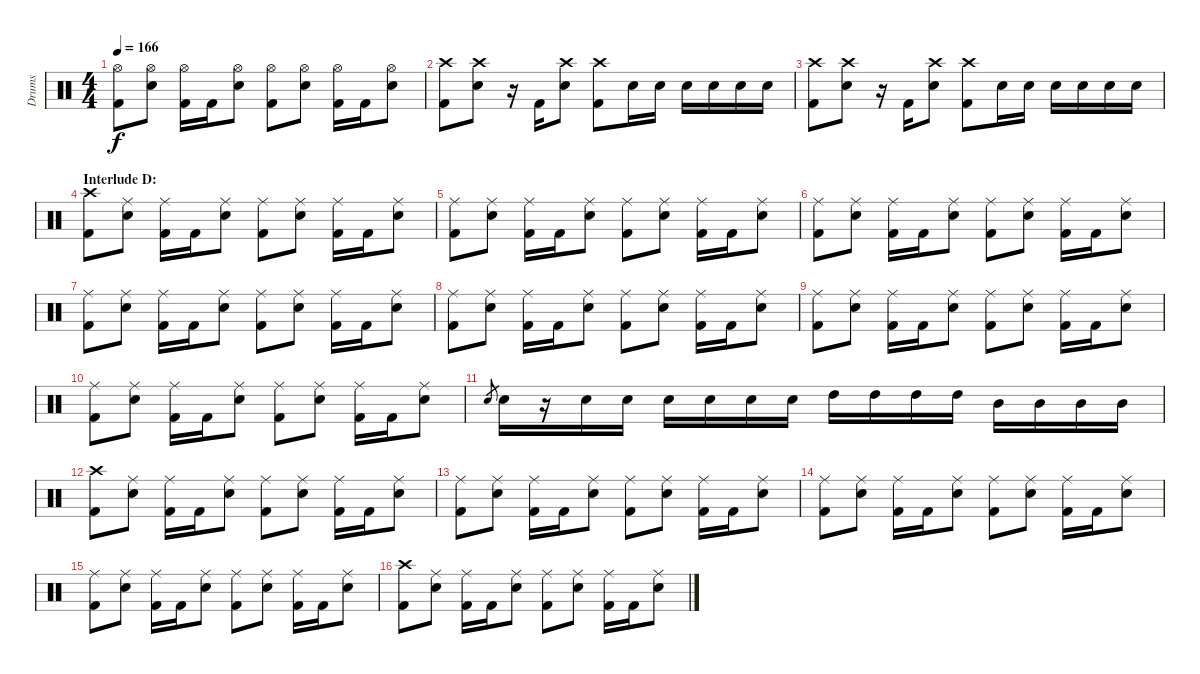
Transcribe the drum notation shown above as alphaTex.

\track ("Drums" "Drums") {instrument percussion}
\staff {score}
\articulation defaults
\ts (4 4)
\tempo 166
\clef neutral
\ks c
("Hi-Hat (open)" "Kick (hit) 2").8{dy f} ("Hi-Hat (open)" "Electric Snare (hit)").8 ("Hi-Hat (open)" "Kick (hit) 2").16 "Kick (hit) 2".16 ("Hi-Hat (open)" "Electric Snare (hit)").8 ("Hi-Hat (open)" "Kick (hit) 2").8 ("Hi-Hat (open)" "Electric Snare (hit)").8 ("Hi-Hat (open)" "Kick (hit) 2").16 "Kick (hit) 2".16 ("Hi-Hat (open)" "Electric Snare (hit)").8 |
("Crash high (hit)" "Kick (hit) 2").8 ("Crash high (hit)" "Electric Snare (hit)").8 r.16 "Kick (hit) 2".16 ("Crash high (hit)" "Electric Snare (hit)").8 ("Crash high (hit)" "Kick (hit) 2").8 "Electric Snare (hit)".16 "Electric Snare (hit)".16 "Electric Snare (hit)".16 "Electric Snare (hit)".16 "Electric Snare (hit)".16 "Electric Snare (hit)".16 |
("Crash high (hit)" "Kick (hit) 2").8 ("Crash high (hit)" "Electric Snare (hit)").8 r.16 "Kick (hit) 2".16 ("Crash high (hit)" "Electric Snare (hit)").8 ("Crash high (hit)" "Kick (hit) 2").8 "Electric Snare (hit)".16 "Electric Snare (hit)".16 "Electric Snare (hit)".16 "Electric Snare (hit)".16 "Electric Snare (hit)".16 "Electric Snare (hit)".16 |
\section ("" "Interlude D:")
("Crash high (hit)" "Kick (hit) 2").8 ("Ride (middle)" "Electric Snare (hit)").8 ("Ride (middle)" "Kick (hit) 2").16 "Kick (hit) 2".16 ("Ride (middle)" "Electric Snare (hit)").8 ("Ride (middle)" "Kick (hit) 2").8 ("Ride (middle)" "Electric Snare (hit)").8 ("Ride (middle)" "Kick (hit) 2").16 "Kick (hit) 2".16 ("Ride (middle)" "Electric Snare (hit)").8 |
("Ride (middle)" "Kick (hit) 2").8 ("Ride (middle)" "Electric Snare (hit)").8 ("Ride (middle)" "Kick (hit) 2").16 "Kick (hit) 2".16 ("Ride (middle)" "Electric Snare (hit)").8 ("Ride (middle)" "Kick (hit) 2").8 ("Ride (middle)" "Electric Snare (hit)").8 ("Ride (middle)" "Kick (hit) 2").16 "Kick (hit) 2".16 ("Ride (middle)" "Electric Snare (hit)").8 |
("Ride (middle)" "Kick (hit) 2").8 ("Ride (middle)" "Electric Snare (hit)").8 ("Ride (middle)" "Kick (hit) 2").16 "Kick (hit) 2".16 ("Ride (middle)" "Electric Snare (hit)").8 ("Ride (middle)" "Kick (hit) 2").8 ("Ride (middle)" "Electric Snare (hit)").8 ("Ride (middle)" "Kick (hit) 2").16 "Kick (hit) 2".16 ("Ride (middle)" "Electric Snare (hit)").8 |
("Ride (middle)" "Kick (hit) 2").8 ("Ride (middle)" "Electric Snare (hit)").8 ("Ride (middle)" "Kick (hit) 2").16 "Kick (hit) 2".16 ("Ride (middle)" "Electric Snare (hit)").8 ("Ride (middle)" "Kick (hit) 2").8 ("Ride (middle)" "Electric Snare (hit)").8 ("Ride (middle)" "Kick (hit) 2").16 "Kick (hit) 2".16 ("Ride (middle)" "Electric Snare (hit)").8 |
("Ride (middle)" "Kick (hit) 2").8 ("Ride (middle)" "Electric Snare (hit)").8 ("Ride (middle)" "Kick (hit) 2").16 "Kick (hit) 2".16 ("Ride (middle)" "Electric Snare (hit)").8 ("Ride (middle)" "Kick (hit) 2").8 ("Ride (middle)" "Electric Snare (hit)").8 ("Ride (middle)" "Kick (hit) 2").16 "Kick (hit) 2".16 ("Ride (middle)" "Electric Snare (hit)").8 |
("Ride (middle)" "Kick (hit) 2").8 ("Ride (middle)" "Electric Snare (hit)").8 ("Ride (middle)" "Kick (hit) 2").16 "Kick (hit) 2".16 ("Ride (middle)" "Electric Snare (hit)").8 ("Ride (middle)" "Kick (hit) 2").8 ("Ride (middle)" "Electric Snare (hit)").8 ("Ride (middle)" "Kick (hit) 2").16 "Kick (hit) 2".16 ("Ride (middle)" "Electric Snare (hit)").8 |
("Ride (middle)" "Kick (hit) 2").8 ("Ride (middle)" "Electric Snare (hit)").8 ("Ride (middle)" "Kick (hit) 2").16 "Kick (hit) 2".16 ("Ride (middle)" "Electric Snare (hit)").8 ("Ride (middle)" "Kick (hit) 2").8 ("Ride (middle)" "Electric Snare (hit)").8 ("Ride (middle)" "Kick (hit) 2").16 "Kick (hit) 2".16 ("Ride (middle)" "Electric Snare (hit)").8 |
"Electric Snare (hit)".8{gr} "Electric Snare (hit)".16 r.16 "Electric Snare (hit)".16 "Electric Snare (hit)".16 "Electric Snare (hit)".16 "Electric Snare (hit)".16 "Electric Snare (hit)".16 "Electric Snare (hit)".16 "High Tom (hit)".16 "High Tom (hit)".16 "High Tom (hit)".16 "High Tom (hit)".16 "Mid Tom (hit)".16 "Mid Tom (hit)".16 "Mid Tom (hit)".16 "Mid Tom (hit)".16 |
("Crash high (hit)" "Kick (hit) 2").8 ("Ride (middle)" "Electric Snare (hit)").8 ("Ride (middle)" "Kick (hit) 2").16 "Kick (hit) 2".16 ("Ride (middle)" "Electric Snare (hit)").8 ("Ride (middle)" "Kick (hit) 2").8 ("Ride (middle)" "Electric Snare (hit)").8 ("Ride (middle)" "Kick (hit) 2").16 "Kick (hit) 2".16 ("Ride (middle)" "Electric Snare (hit)").8 |
("Ride (middle)" "Kick (hit) 2").8 ("Ride (middle)" "Electric Snare (hit)").8 ("Ride (middle)" "Kick (hit) 2").16 "Kick (hit) 2".16 ("Ride (middle)" "Electric Snare (hit)").8 ("Ride (middle)" "Kick (hit) 2").8 ("Ride (middle)" "Electric Snare (hit)").8 ("Ride (middle)" "Kick (hit) 2").16 "Kick (hit) 2".16 ("Ride (middle)" "Electric Snare (hit)").8 |
("Ride (middle)" "Kick (hit) 2").8 ("Ride (middle)" "Electric Snare (hit)").8 ("Ride (middle)" "Kick (hit) 2").16 "Kick (hit) 2".16 ("Ride (middle)" "Electric Snare (hit)").8 ("Ride (middle)" "Kick (hit) 2").8 ("Ride (middle)" "Electric Snare (hit)").8 ("Ride (middle)" "Kick (hit) 2").16 "Kick (hit) 2".16 ("Ride (middle)" "Electric Snare (hit)").8 |
("Ride (middle)" "Kick (hit) 2").8 ("Ride (middle)" "Electric Snare (hit)").8 ("Ride (middle)" "Kick (hit) 2").16 "Kick (hit) 2".16 ("Ride (middle)" "Electric Snare (hit)").8 ("Ride (middle)" "Kick (hit) 2").8 ("Ride (middle)" "Electric Snare (hit)").8 ("Ride (middle)" "Kick (hit) 2").16 "Kick (hit) 2".16 ("Ride (middle)" "Electric Snare (hit)").8 |
("Crash high (hit)" "Kick (hit) 2").8 ("Ride (middle)" "Electric Snare (hit)").8 ("Ride (middle)" "Kick (hit) 2").16 "Kick (hit) 2".16 ("Ride (middle)" "Electric Snare (hit)").8 ("Ride (middle)" "Kick (hit) 2").8 ("Ride (middle)" "Electric Snare (hit)").8 ("Ride (middle)" "Kick (hit) 2").16 "Kick (hit) 2".16 ("Ride (middle)" "Electric Snare (hit)").8
